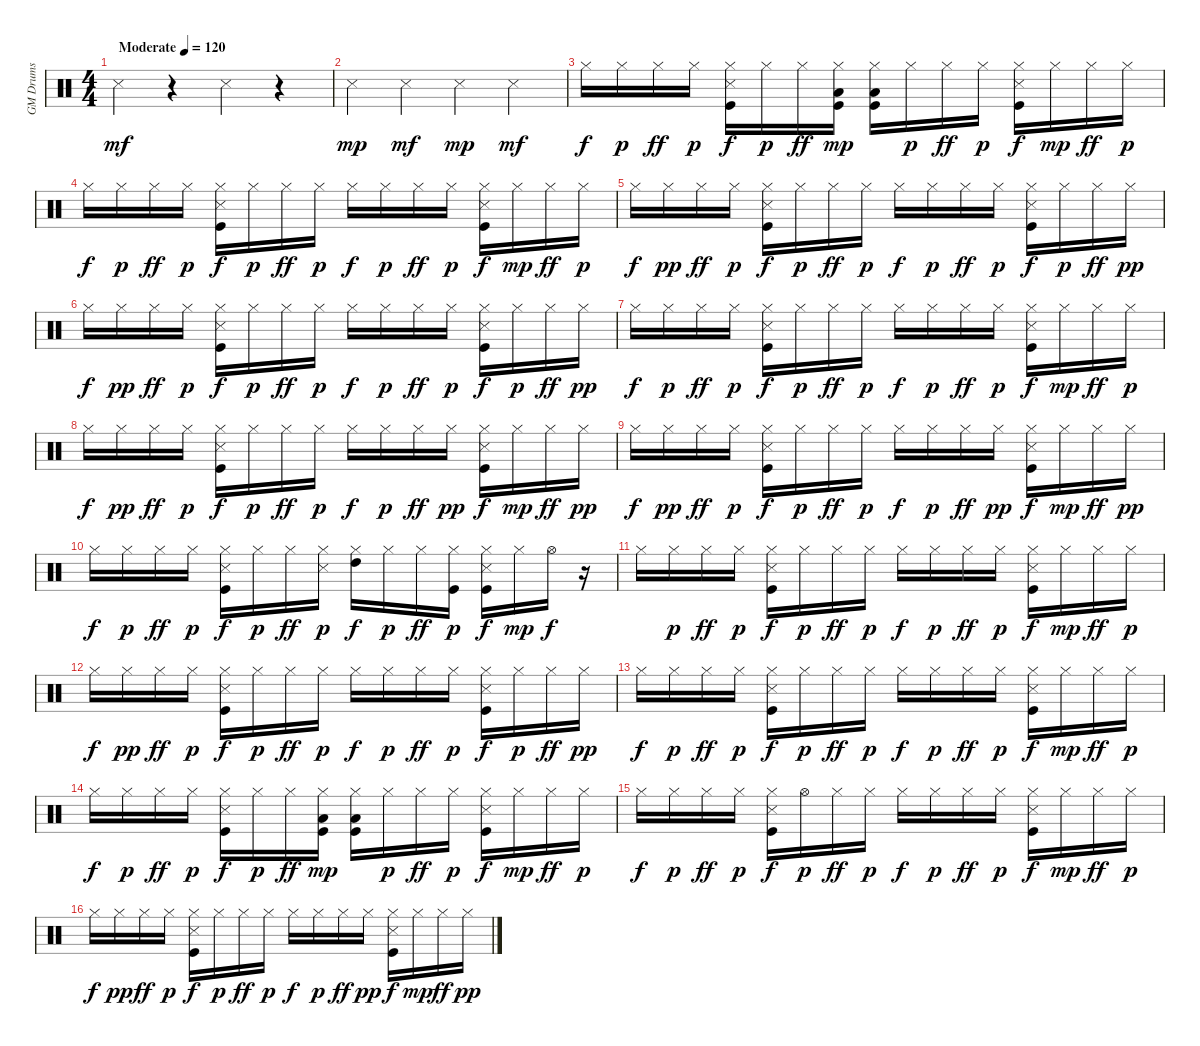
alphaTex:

\track ("GM Drums" "GM Drums") {instrument percussion}
\staff {score}
\articulation defaults
\ts (4 4)
\tempo (120 "Moderate")
\clef neutral
\ks c "Snare (side stick) 3".4{dy mf}
r.4 "Snare (side stick) 3".4 r.4 |
"Snare (side stick) 3".4{dy mp} "Snare (side stick) 3".4{dy mf} "Snare (side stick) 3".4{dy mp} "Snare (side stick) 3".4{dy mf} |
"Hi-Hat (closed)".16{dy f} "Hi-Hat (closed)".16{dy p} "Hi-Hat (closed)".16{dy ff} "Hi-Hat (closed)".16{dy p} ("Kick (hit)" "Snare (side stick) 3" "Hi-Hat (closed)").16{dy f} "Hi-Hat (closed)".16{dy p} "Hi-Hat (closed)".16{dy ff} ("Kick (hit)" "Hi-Hat (closed)" "Low Tom (hit)").16{dy mp} ("Kick (hit)" "Hi-Hat (closed)" "Low Tom (hit)").16 "Hi-Hat (closed)".16{dy p} "Hi-Hat (closed)".16{dy ff} "Hi-Hat (closed)".16{dy p} ("Kick (hit)" "Snare (side stick) 3" "Hi-Hat (closed)").16{dy f} "Hi-Hat (closed)".16{dy mp} "Hi-Hat (closed)".16{dy ff} "Hi-Hat (closed)".16{dy p} |
"Hi-Hat (closed)".16{dy f} "Hi-Hat (closed)".16{dy p} "Hi-Hat (closed)".16{dy ff} "Hi-Hat (closed)".16{dy p} ("Kick (hit)" "Snare (side stick) 3" "Hi-Hat (closed)").16{dy f} "Hi-Hat (closed)".16{dy p} "Hi-Hat (closed)".16{dy ff} "Hi-Hat (closed)".16{dy p} "Hi-Hat (closed)".16{dy f} "Hi-Hat (closed)".16{dy p} "Hi-Hat (closed)".16{dy ff} "Hi-Hat (closed)".16{dy p} ("Kick (hit)" "Snare (side stick) 3" "Hi-Hat (closed)").16{dy f} "Hi-Hat (closed)".16{dy mp} "Hi-Hat (closed)".16{dy ff} "Hi-Hat (closed)".16{dy p} |
"Hi-Hat (closed)".16{dy f} "Hi-Hat (closed)".16{dy pp} "Hi-Hat (closed)".16{dy ff} "Hi-Hat (closed)".16{dy p} ("Kick (hit)" "Snare (side stick) 3" "Hi-Hat (closed)").16{dy f} "Hi-Hat (closed)".16{dy p} "Hi-Hat (closed)".16{dy ff} "Hi-Hat (closed)".16{dy p} "Hi-Hat (closed)".16{dy f} "Hi-Hat (closed)".16{dy p} "Hi-Hat (closed)".16{dy ff} "Hi-Hat (closed)".16{dy p} ("Kick (hit)" "Snare (side stick) 3" "Hi-Hat (closed)").16{dy f} "Hi-Hat (closed)".16{dy p} "Hi-Hat (closed)".16{dy ff} "Hi-Hat (closed)".16{dy pp} |
"Hi-Hat (closed)".16{dy f} "Hi-Hat (closed)".16{dy pp} "Hi-Hat (closed)".16{dy ff} "Hi-Hat (closed)".16{dy p} ("Kick (hit)" "Snare (side stick) 3" "Hi-Hat (closed)").16{dy f} "Hi-Hat (closed)".16{dy p} "Hi-Hat (closed)".16{dy ff} "Hi-Hat (closed)".16{dy p} "Hi-Hat (closed)".16{dy f} "Hi-Hat (closed)".16{dy p} "Hi-Hat (closed)".16{dy ff} "Hi-Hat (closed)".16{dy p} ("Kick (hit)" "Snare (side stick) 3" "Hi-Hat (closed)").16{dy f} "Hi-Hat (closed)".16{dy p} "Hi-Hat (closed)".16{dy ff} "Hi-Hat (closed)".16{dy pp} |
"Hi-Hat (closed)".16{dy f} "Hi-Hat (closed)".16{dy p} "Hi-Hat (closed)".16{dy ff} "Hi-Hat (closed)".16{dy p} ("Kick (hit)" "Snare (side stick) 3" "Hi-Hat (closed)").16{dy f} "Hi-Hat (closed)".16{dy p} "Hi-Hat (closed)".16{dy ff} "Hi-Hat (closed)".16{dy p} "Hi-Hat (closed)".16{dy f} "Hi-Hat (closed)".16{dy p} "Hi-Hat (closed)".16{dy ff} "Hi-Hat (closed)".16{dy p} ("Kick (hit)" "Snare (side stick) 3" "Hi-Hat (closed)").16{dy f} "Hi-Hat (closed)".16{dy mp} "Hi-Hat (closed)".16{dy ff} "Hi-Hat (closed)".16{dy p} |
"Hi-Hat (closed)".16{dy f} "Hi-Hat (closed)".16{dy pp} "Hi-Hat (closed)".16{dy ff} "Hi-Hat (closed)".16{dy p} ("Kick (hit)" "Snare (side stick) 3" "Hi-Hat (closed)").16{dy f} "Hi-Hat (closed)".16{dy p} "Hi-Hat (closed)".16{dy ff} "Hi-Hat (closed)".16{dy p} "Hi-Hat (closed)".16{dy f} "Hi-Hat (closed)".16{dy p} "Hi-Hat (closed)".16{dy ff} "Hi-Hat (closed)".16{dy pp} ("Kick (hit)" "Snare (side stick) 3" "Hi-Hat (closed)").16{dy f} "Hi-Hat (closed)".16{dy mp} "Hi-Hat (closed)".16{dy ff} "Hi-Hat (closed)".16{dy pp} |
"Hi-Hat (closed)".16{dy f} "Hi-Hat (closed)".16{dy pp} "Hi-Hat (closed)".16{dy ff} "Hi-Hat (closed)".16{dy p} ("Kick (hit)" "Snare (side stick) 3" "Hi-Hat (closed)").16{dy f} "Hi-Hat (closed)".16{dy p} "Hi-Hat (closed)".16{dy ff} "Hi-Hat (closed)".16{dy p} "Hi-Hat (closed)".16{dy f} "Hi-Hat (closed)".16{dy p} "Hi-Hat (closed)".16{dy ff} "Hi-Hat (closed)".16{dy pp} ("Kick (hit)" "Snare (side stick) 3" "Hi-Hat (closed)").16{dy f} "Hi-Hat (closed)".16{dy mp} "Hi-Hat (closed)".16{dy ff} "Hi-Hat (closed)".16{dy pp} |
"Hi-Hat (closed)".16{dy f} "Hi-Hat (closed)".16{dy p} "Hi-Hat (closed)".16{dy ff} "Hi-Hat (closed)".16{dy p} ("Kick (hit)" "Snare (side stick) 3" "Hi-Hat (closed)").16{dy f} "Hi-Hat (closed)".16{dy p} "Hi-Hat (closed)".16{dy ff} ("Snare (side stick) 3" "Hi-Hat (closed)").16{dy p} ("Hi-Hat (closed)" "High Tom (hit)").16{dy f} "Hi-Hat (closed)".16{dy p} "Hi-Hat (closed)".16{dy ff} ("Kick (hit)" "Hi-Hat (closed)").16{dy p} ("Kick (hit)" "Snare (side stick) 3" "Hi-Hat (closed)").16{dy f} "Hi-Hat (closed)".16{dy mp} "Hi-Hat (open)".16{dy f} r.16 |
"Hi-Hat (closed)".16 "Hi-Hat (closed)".16{dy p} "Hi-Hat (closed)".16{dy ff} "Hi-Hat (closed)".16{dy p} ("Kick (hit)" "Snare (side stick) 3" "Hi-Hat (closed)").16{dy f} "Hi-Hat (closed)".16{dy p} "Hi-Hat (closed)".16{dy ff} "Hi-Hat (closed)".16{dy p} "Hi-Hat (closed)".16{dy f} "Hi-Hat (closed)".16{dy p} "Hi-Hat (closed)".16{dy ff} "Hi-Hat (closed)".16{dy p} ("Kick (hit)" "Snare (side stick) 3" "Hi-Hat (closed)").16{dy f} "Hi-Hat (closed)".16{dy mp} "Hi-Hat (closed)".16{dy ff} "Hi-Hat (closed)".16{dy p} |
"Hi-Hat (closed)".16{dy f} "Hi-Hat (closed)".16{dy pp} "Hi-Hat (closed)".16{dy ff} "Hi-Hat (closed)".16{dy p} ("Kick (hit)" "Snare (side stick) 3" "Hi-Hat (closed)").16{dy f} "Hi-Hat (closed)".16{dy p} "Hi-Hat (closed)".16{dy ff} "Hi-Hat (closed)".16{dy p} "Hi-Hat (closed)".16{dy f} "Hi-Hat (closed)".16{dy p} "Hi-Hat (closed)".16{dy ff} "Hi-Hat (closed)".16{dy p} ("Kick (hit)" "Snare (side stick) 3" "Hi-Hat (closed)").16{dy f} "Hi-Hat (closed)".16{dy p} "Hi-Hat (closed)".16{dy ff} "Hi-Hat (closed)".16{dy pp} |
"Hi-Hat (closed)".16{dy f} "Hi-Hat (closed)".16{dy p} "Hi-Hat (closed)".16{dy ff} "Hi-Hat (closed)".16{dy p} ("Kick (hit)" "Snare (side stick) 3" "Hi-Hat (closed)").16{dy f} "Hi-Hat (closed)".16{dy p} "Hi-Hat (closed)".16{dy ff} "Hi-Hat (closed)".16{dy p} "Hi-Hat (closed)".16{dy f} "Hi-Hat (closed)".16{dy p} "Hi-Hat (closed)".16{dy ff} "Hi-Hat (closed)".16{dy p} ("Kick (hit)" "Snare (side stick) 3" "Hi-Hat (closed)").16{dy f} "Hi-Hat (closed)".16{dy mp} "Hi-Hat (closed)".16{dy ff} "Hi-Hat (closed)".16{dy p} |
"Hi-Hat (closed)".16{dy f} "Hi-Hat (closed)".16{dy p} "Hi-Hat (closed)".16{dy ff} "Hi-Hat (closed)".16{dy p} ("Kick (hit)" "Snare (side stick) 3" "Hi-Hat (closed)").16{dy f} "Hi-Hat (closed)".16{dy p} "Hi-Hat (closed)".16{dy ff} ("Kick (hit)" "Hi-Hat (closed)" "Low Tom (hit)").16{dy mp} ("Kick (hit)" "Hi-Hat (closed)" "Low Tom (hit)").16 "Hi-Hat (closed)".16{dy p} "Hi-Hat (closed)".16{dy ff} "Hi-Hat (closed)".16{dy p} ("Kick (hit)" "Snare (side stick) 3" "Hi-Hat (closed)").16{dy f} "Hi-Hat (closed)".16{dy mp} "Hi-Hat (closed)".16{dy ff} "Hi-Hat (closed)".16{dy p} |
"Hi-Hat (closed)".16{dy f} "Hi-Hat (closed)".16{dy p} "Hi-Hat (closed)".16{dy ff} "Hi-Hat (closed)".16{dy p} ("Kick (hit)" "Snare (side stick) 3" "Hi-Hat (closed)").16{dy f} "Hi-Hat (open)".16{dy p} "Hi-Hat (closed)".16{dy ff} "Hi-Hat (closed)".16{dy p} "Hi-Hat (closed)".16{dy f} "Hi-Hat (closed)".16{dy p} "Hi-Hat (closed)".16{dy ff} "Hi-Hat (closed)".16{dy p} ("Kick (hit)" "Snare (side stick) 3" "Hi-Hat (closed)").16{dy f} "Hi-Hat (closed)".16{dy mp} "Hi-Hat (closed)".16{dy ff} "Hi-Hat (closed)".16{dy p} |
"Hi-Hat (closed)".16{dy f} "Hi-Hat (closed)".16{dy pp} "Hi-Hat (closed)".16{dy ff} "Hi-Hat (closed)".16{dy p} ("Kick (hit)" "Snare (side stick) 3" "Hi-Hat (closed)").16{dy f} "Hi-Hat (closed)".16{dy p} "Hi-Hat (closed)".16{dy ff} "Hi-Hat (closed)".16{dy p} "Hi-Hat (closed)".16{dy f} "Hi-Hat (closed)".16{dy p} "Hi-Hat (closed)".16{dy ff} "Hi-Hat (closed)".16{dy pp} ("Kick (hit)" "Snare (side stick) 3" "Hi-Hat (closed)").16{dy f} "Hi-Hat (closed)".16{dy mp} "Hi-Hat (closed)".16{dy ff} "Hi-Hat (closed)".16{dy pp}
